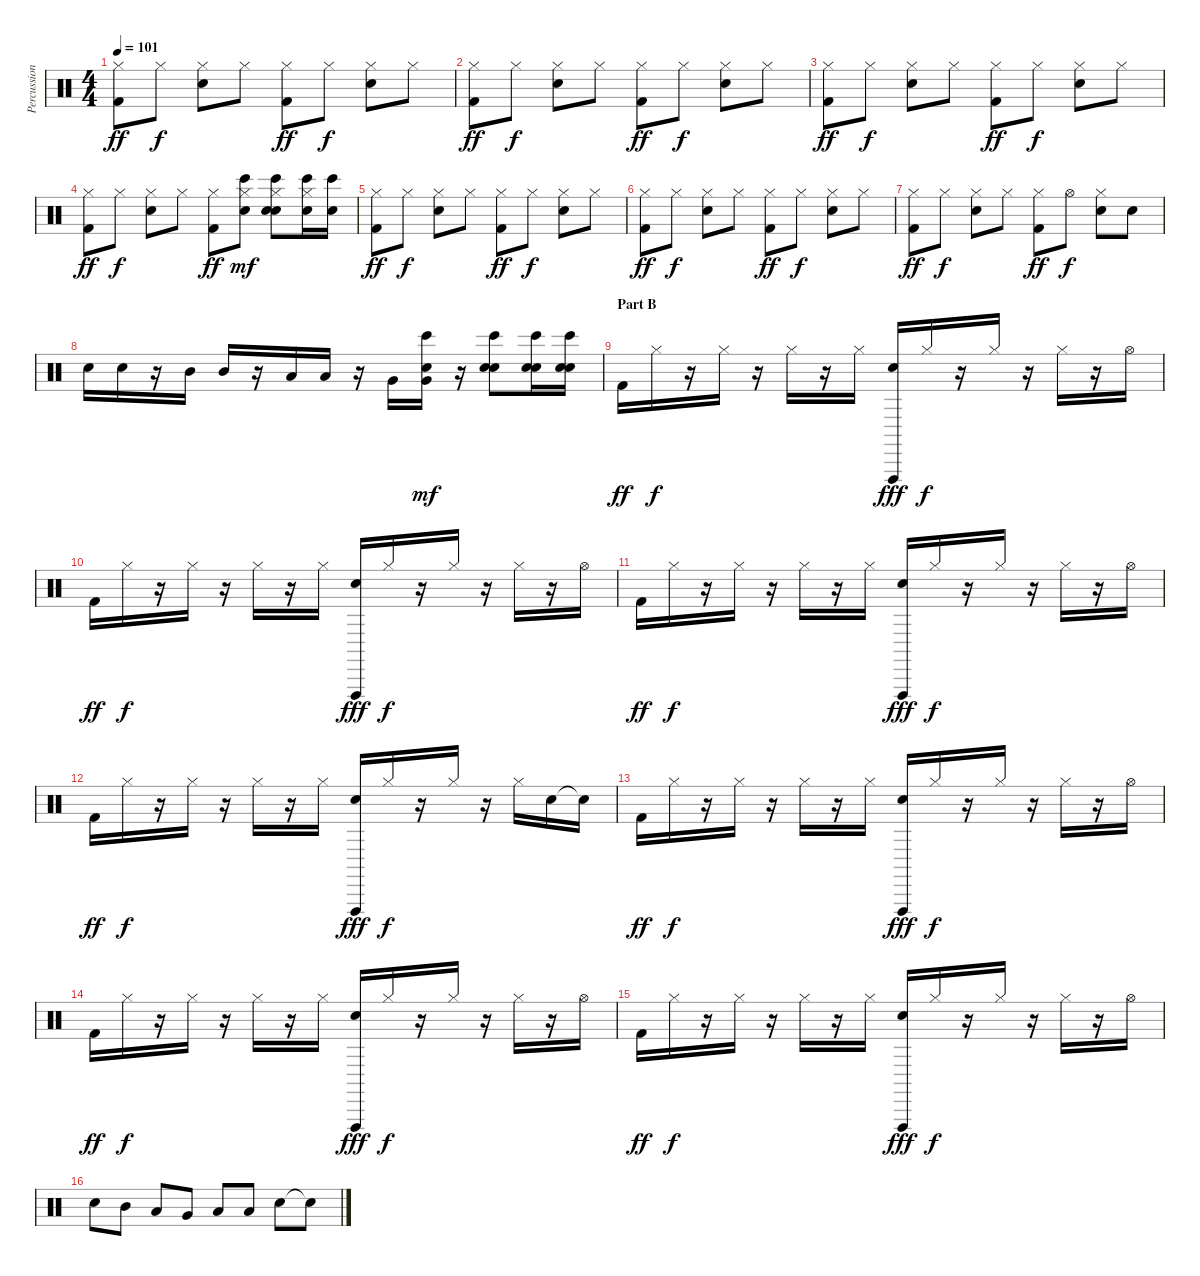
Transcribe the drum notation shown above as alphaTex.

\track ("Percussion" "Percussion") {instrument percussion}
\staff {score}
\articulation defaults
\ts (4 4)
\tempo 101
\clef neutral
\ks c
("Hi-Hat (closed)" "Kick (hit) 2").8{dy ff} "Hi-Hat (closed)".8{dy f} ("Hi-Hat (closed)" "Electric Snare (hit)").8 "Hi-Hat (closed)".8 ("Hi-Hat (closed)" "Kick (hit) 2").8{dy ff} "Hi-Hat (closed)".8{dy f} ("Hi-Hat (closed)" "Electric Snare (hit)").8 "Hi-Hat (closed)".8 |
("Hi-Hat (closed)" "Kick (hit) 2").8{dy ff} "Hi-Hat (closed)".8{dy f} ("Hi-Hat (closed)" "Electric Snare (hit)").8 "Hi-Hat (closed)".8 ("Hi-Hat (closed)" "Kick (hit) 2").8{dy ff} "Hi-Hat (closed)".8{dy f} ("Hi-Hat (closed)" "Electric Snare (hit)").8 "Hi-Hat (closed)".8 |
("Hi-Hat (closed)" "Kick (hit) 2").8{dy ff} "Hi-Hat (closed)".8{dy f} ("Hi-Hat (closed)" "Electric Snare (hit)").8 "Hi-Hat (closed)".8 ("Hi-Hat (closed)" "Kick (hit) 2").8{dy ff} "Hi-Hat (closed)".8{dy f} ("Hi-Hat (closed)" "Electric Snare (hit)").8 "Hi-Hat (closed)".8 |
("Hi-Hat (closed)" "Kick (hit) 2").8{dy ff} "Hi-Hat (closed)".8{dy f} ("Hi-Hat (closed)" "Electric Snare (hit)").8 "Hi-Hat (closed)".8 ("Hi-Hat (closed)" "Kick (hit) 2").8{dy ff} ("Hi-Hat (closed)" "Bongo High (hit)" "Hand Clap (hit)").8{dy mf} ("Hi-Hat (closed)" "Bongo High (hit)" "Hand Clap (hit)" "Electric Snare (hit)").8 ("Hi-Hat (closed)" "Bongo High (hit)" "Hand Clap (hit)").16 ("Bongo High (hit)" "Hand Clap (hit)").16 |
("Hi-Hat (closed)" "Kick (hit) 2").8{dy ff} "Hi-Hat (closed)".8{dy f} ("Hi-Hat (closed)" "Electric Snare (hit)").8 "Hi-Hat (closed)".8 ("Hi-Hat (closed)" "Kick (hit) 2").8{dy ff} "Hi-Hat (closed)".8{dy f} ("Hi-Hat (closed)" "Electric Snare (hit)").8 "Hi-Hat (closed)".8 |
("Hi-Hat (closed)" "Kick (hit) 2").8{dy ff} "Hi-Hat (closed)".8{dy f} ("Hi-Hat (closed)" "Electric Snare (hit)").8 "Hi-Hat (closed)".8 ("Hi-Hat (closed)" "Kick (hit) 2").8{dy ff} "Hi-Hat (closed)".8{dy f} ("Hi-Hat (closed)" "Electric Snare (hit)").8 "Hi-Hat (closed)".8 |
("Hi-Hat (closed)" "Kick (hit) 2").8{dy ff} "Hi-Hat (closed)".8{dy f} ("Hi-Hat (closed)" "Electric Snare (hit)").8 "Hi-Hat (closed)".8 ("Hi-Hat (closed)" "Kick (hit) 2").8{dy ff} "Hi-Hat (open)".8{dy f} ("Hi-Hat (closed)" "Electric Snare (hit)").8 "Electric Snare (hit)"{tr (40 64)}.8 |
"Electric Snare (hit)".16 "Electric Snare (hit)".16 r.16 "Mid Tom (hit)".16 "Mid Tom (hit)".16 r.16 "Low Tom (hit)".16 "Low Tom (hit)".16 r.16 "Very Low Tom (hit)".16 ("Bongo High (hit)" "Hand Clap (hit)" "Very Low Tom (hit)").16{dy mf} r.16 ("Bongo High (hit)" "Hand Clap (hit)" "Electric Snare (hit)"{tr (40 64)}).8 ("Bongo High (hit)" "Hand Clap (hit)" "Electric Snare (hit)").16 ("Bongo High (hit)" "Hand Clap (hit)" "Electric Snare (hit)").16 |
\section ("" "Part B ")
"Kick (hit) 2".16{dy ff} "Hi-Hat (closed)".16{dy f} r.16 "Hi-Hat (closed)".16 r.16 "Hi-Hat (closed)".16 r.16 "Hi-Hat (closed)".16 ("Vibraslap (hit)" "Electric Snare (hit)").16{dy fff} "Hi-Hat (closed)".16{dy f} r.16 "Hi-Hat (closed)".16 r.16 "Hi-Hat (closed)".16 r.16 "Hi-Hat (open)".16 |
"Kick (hit) 2".16{dy ff} "Hi-Hat (closed)".16{dy f} r.16 "Hi-Hat (closed)".16 r.16 "Hi-Hat (closed)".16 r.16 "Hi-Hat (closed)".16 ("Vibraslap (hit)" "Electric Snare (hit)").16{dy fff} "Hi-Hat (closed)".16{dy f} r.16 "Hi-Hat (closed)".16 r.16 "Hi-Hat (closed)".16 r.16 "Hi-Hat (open)".16 |
"Kick (hit) 2".16{dy ff} "Hi-Hat (closed)".16{dy f} r.16 "Hi-Hat (closed)".16 r.16 "Hi-Hat (closed)".16 r.16 "Hi-Hat (closed)".16 ("Vibraslap (hit)" "Electric Snare (hit)").16{dy fff} "Hi-Hat (closed)".16{dy f} r.16 "Hi-Hat (closed)".16 r.16 "Hi-Hat (closed)".16 r.16 "Hi-Hat (open)".16 |
"Kick (hit) 2".16{dy ff} "Hi-Hat (closed)".16{dy f} r.16 "Hi-Hat (closed)".16 r.16 "Hi-Hat (closed)".16 r.16 "Hi-Hat (closed)".16 ("Vibraslap (hit)" "Electric Snare (hit)").16{dy fff} "Hi-Hat (closed)".16{dy f} r.16 "Hi-Hat (closed)".16 r.16 "Hi-Hat (closed)".16 "Electric Snare (hit)"{tr (40 64)}.16 "Snare (hit)"{t}.16 |
"Kick (hit) 2".16{dy ff} "Hi-Hat (closed)".16{dy f} r.16 "Hi-Hat (closed)".16 r.16 "Hi-Hat (closed)".16 r.16 "Hi-Hat (closed)".16 ("Vibraslap (hit)" "Electric Snare (hit)").16{dy fff} "Hi-Hat (closed)".16{dy f} r.16 "Hi-Hat (closed)".16 r.16 "Hi-Hat (closed)".16 r.16 "Hi-Hat (open)".16 |
"Kick (hit) 2".16{dy ff} "Hi-Hat (closed)".16{dy f} r.16 "Hi-Hat (closed)".16 r.16 "Hi-Hat (closed)".16 r.16 "Hi-Hat (closed)".16 ("Vibraslap (hit)" "Electric Snare (hit)").16{dy fff} "Hi-Hat (closed)".16{dy f} r.16 "Hi-Hat (closed)".16 r.16 "Hi-Hat (closed)".16 r.16 "Hi-Hat (open)".16 |
"Kick (hit) 2".16{dy ff} "Hi-Hat (closed)".16{dy f} r.16 "Hi-Hat (closed)".16 r.16 "Hi-Hat (closed)".16 r.16 "Hi-Hat (closed)".16 ("Vibraslap (hit)" "Electric Snare (hit)").16{dy fff} "Hi-Hat (closed)".16{dy f} r.16 "Hi-Hat (closed)".16 r.16 "Hi-Hat (closed)".16 r.16 "Hi-Hat (open)".16 |
"Electric Snare (hit)"{tr (40 32)}.8 "Mid Tom (hit)"{tr (47 32)}.8 "Low Tom (hit)"{tr (45 32)}.8 "Very Low Tom (hit)"{tr (43 32)}.8 "Low Floor Tom (hit)"{tr (41 32)}.8 "Low Floor Tom (hit)"{tr (41 32)}.8 "Electric Snare (hit)"{tr (40 32)}.8 "Electric Snare (hit)"{t}.8
